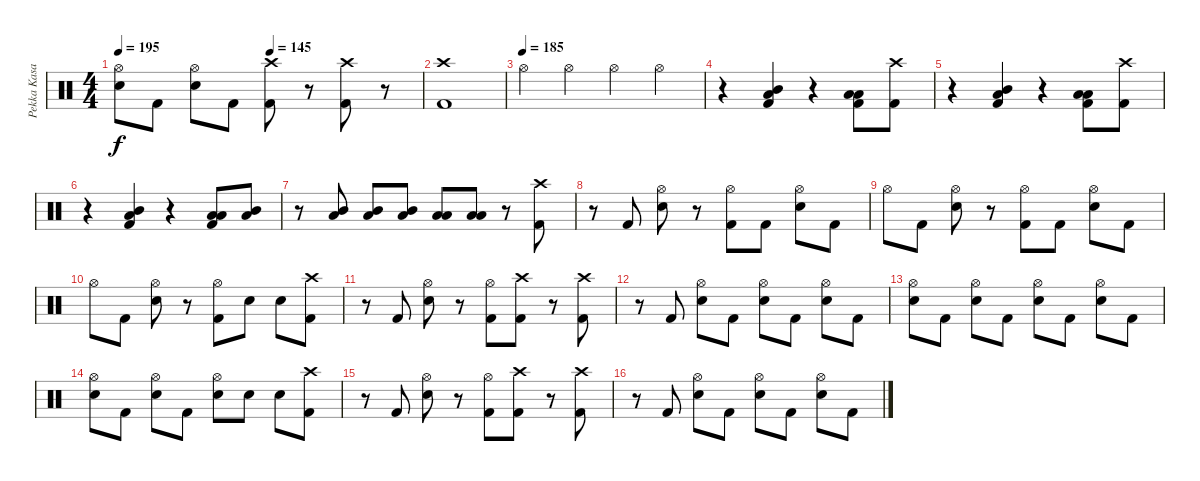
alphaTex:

\track ("Pekka Kasari" "Pekka Kasa") {instrument percussion}
\staff {score}
\articulation defaults
\ts (4 4)
\tempo 195
\tempo (145 0.5)
\clef neutral
\ks c
("Hi-Hat (open)" "Snare (hit) 2").8{dy f} "Kick (hit) 2".8 ("Hi-Hat (open)" "Snare (hit) 2").8 "Kick (hit) 2".8 ("Crash high (hit)" "Kick (hit) 2").8 r.8 ("Crash high (hit)" "Kick (hit) 2").8 r.8 |
("Kick (hit) 2" "Crash high (hit)").1 |
\tempo (185)
"Hi-Hat (open)".4 "Hi-Hat (open)".4 "Hi-Hat (open)".4 "Hi-Hat (open)".4 |
r.4 ("Kick (hit) 2" "Low Tom (hit)" "Mid Tom (hit)").4 r.4 ("Low Tom (hit)" "Low Floor Tom (hit)" "Kick (hit) 2").8 ("Crash high (hit)" "Kick (hit) 2").8 |
r.4 ("Kick (hit) 2" "Low Tom (hit)" "Mid Tom (hit)").4 r.4 ("Low Tom (hit)" "Low Floor Tom (hit)" "Kick (hit) 2").8 ("Crash high (hit)" "Kick (hit) 2").8 |
r.4 ("Kick (hit) 2" "Low Tom (hit)" "Mid Tom (hit)").4 r.4 ("Low Tom (hit)" "Low Floor Tom (hit)" "Kick (hit) 2").8 ("Mid Tom (hit)" "Low Tom (hit)").8 |
r.8 ("Mid Tom (hit)" "Low Tom (hit)").8 ("Mid Tom (hit)" "Low Tom (hit)").8 ("Low Tom (hit)" "Mid Tom (hit)").8 ("Low Tom (hit)" "Low Floor Tom (hit)").8 ("Low Tom (hit)" "Low Floor Tom (hit)").8 r.8 ("Kick (hit) 2" "Crash high (hit)").8 |
r.8 "Kick (hit) 2".8 ("Hi-Hat (open)" "Snare (hit) 2").8 r.8 ("Hi-Hat (open)" "Kick (hit) 2").8 "Kick (hit) 2".8 ("Hi-Hat (open)" "Snare (hit) 2").8 "Kick (hit) 2".8 |
"Hi-Hat (open)".8 "Kick (hit) 2".8 ("Hi-Hat (open)" "Snare (hit) 2").8 r.8 ("Hi-Hat (open)" "Kick (hit) 2").8 "Kick (hit) 2".8 ("Hi-Hat (open)" "Snare (hit) 2").8 "Kick (hit) 2".8 |
"Hi-Hat (open)".8 "Kick (hit) 2".8 ("Hi-Hat (open)" "Snare (hit) 2").8 r.8 ("Hi-Hat (open)" "Kick (hit) 2").8 "Snare (hit) 2".8 "Snare (hit) 2".8 ("Kick (hit) 2" "Crash high (hit)").8 |
r.8 "Kick (hit) 2".8 ("Hi-Hat (open)" "Snare (hit) 2").8 r.8 ("Hi-Hat (open)" "Kick (hit) 2").8 ("Crash high (hit)" "Kick (hit) 2").8 r.8 ("Crash high (hit)" "Kick (hit) 2").8 |
r.8 "Kick (hit) 2".8 ("Hi-Hat (open)" "Snare (hit) 2").8 "Kick (hit) 2".8 ("Snare (hit) 2" "Hi-Hat (open)").8 "Kick (hit) 2".8 ("Hi-Hat (open)" "Snare (hit) 2").8 "Kick (hit) 2".8 |
("Hi-Hat (open)" "Snare (hit) 2").8 "Kick (hit) 2".8 ("Snare (hit) 2" "Hi-Hat (open)").8 "Kick (hit) 2".8 ("Snare (hit) 2" "Hi-Hat (open)").8 "Kick (hit) 2".8 ("Hi-Hat (open)" "Snare (hit) 2").8 "Kick (hit) 2".8 |
("Hi-Hat (open)" "Snare (hit) 2").8 "Kick (hit) 2".8 ("Hi-Hat (open)" "Snare (hit) 2").8 "Kick (hit) 2".8 ("Hi-Hat (open)" "Snare (hit) 2").8 "Snare (hit) 2".8 "Snare (hit) 2".8 ("Kick (hit) 2" "Crash high (hit)").8 |
r.8 "Kick (hit) 2".8 ("Hi-Hat (open)" "Snare (hit) 2").8 r.8 ("Hi-Hat (open)" "Kick (hit) 2").8 ("Crash high (hit)" "Kick (hit) 2").8 r.8 ("Crash high (hit)" "Kick (hit) 2").8 |
r.8 "Kick (hit) 2".8 ("Snare (hit) 2" "Hi-Hat (open)").8 "Kick (hit) 2".8 ("Snare (hit) 2" "Hi-Hat (open)").8 "Kick (hit) 2".8 ("Hi-Hat (open)" "Snare (hit) 2").8 "Kick (hit) 2".8
